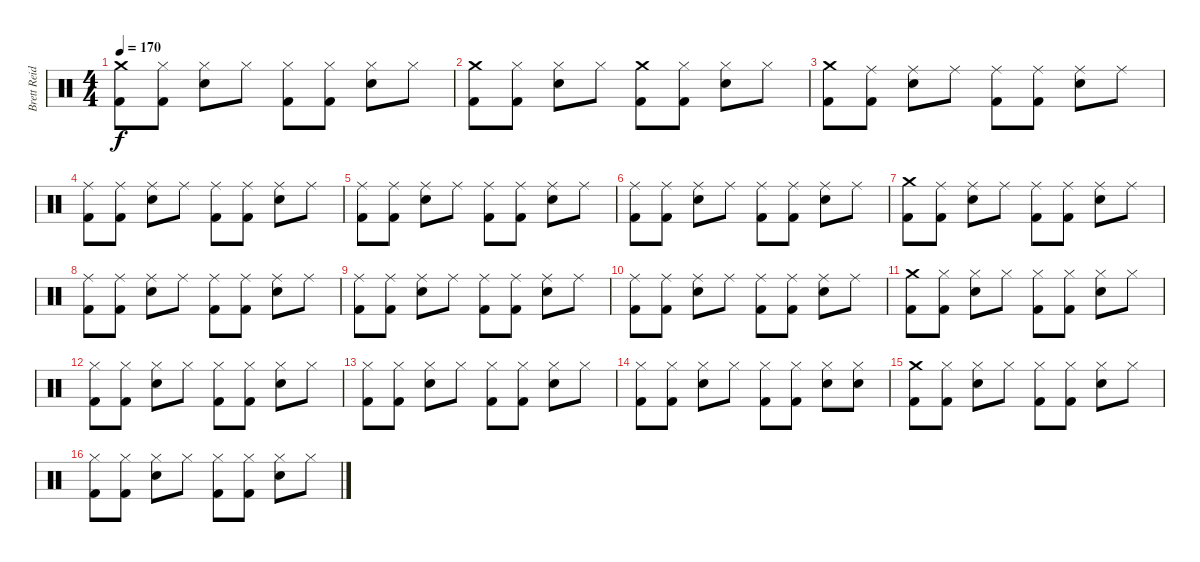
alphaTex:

\track ("Brett Reid" "Brett Reid") {instrument percussion}
\staff {score}
\articulation defaults
\ts (4 4)
\tempo 170
\clef neutral
\ks c
("Crash medium (hit)" "Kick (hit) 2").8{dy f} ("Hi-Hat (closed)" "Kick (hit) 2").8 ("Hi-Hat (closed)" "Snare (hit) 2").8 "Hi-Hat (closed)".8 ("Hi-Hat (closed)" "Kick (hit) 2").8 ("Hi-Hat (closed)" "Kick (hit) 2").8 ("Hi-Hat (closed)" "Snare (hit) 2").8 "Hi-Hat (closed)".8 |
("Crash medium (hit)" "Kick (hit) 2").8 ("Hi-Hat (closed)" "Kick (hit) 2").8 ("Hi-Hat (closed)" "Snare (hit) 2").8 "Hi-Hat (closed)".8 ("Crash medium (hit)" "Kick (hit) 2").8 ("Hi-Hat (closed)" "Kick (hit) 2").8 ("Hi-Hat (closed)" "Snare (hit) 2").8 "Hi-Hat (closed)".8 |
("Crash medium (hit)" "Kick (hit) 2").8 ("Ride (middle)" "Kick (hit) 2").8 ("Ride (middle)" "Snare (hit) 2").8 "Ride (middle)".8 ("Ride (middle)" "Kick (hit) 2").8 ("Ride (middle)" "Kick (hit) 2").8 ("Ride (middle)" "Snare (hit) 2").8 "Ride (middle)".8 |
("Ride (middle)" "Kick (hit) 2").8 ("Ride (middle)" "Kick (hit) 2").8 ("Ride (middle)" "Snare (hit) 2").8 "Ride (middle)".8 ("Ride (middle)" "Kick (hit) 2").8 ("Ride (middle)" "Kick (hit) 2").8 ("Ride (middle)" "Snare (hit) 2").8 "Ride (middle)".8 |
("Ride (middle)" "Kick (hit) 2").8 ("Ride (middle)" "Kick (hit) 2").8 ("Ride (middle)" "Snare (hit) 2").8 "Ride (middle)".8 ("Ride (middle)" "Kick (hit) 2").8 ("Ride (middle)" "Kick (hit) 2").8 ("Ride (middle)" "Snare (hit) 2").8 "Ride (middle)".8 |
("Ride (middle)" "Kick (hit) 2").8 ("Ride (middle)" "Kick (hit) 2").8 ("Ride (middle)" "Snare (hit) 2").8 "Ride (middle)".8 ("Ride (middle)" "Kick (hit) 2").8 ("Ride (middle)" "Kick (hit) 2").8 ("Ride (middle)" "Snare (hit) 2").8 "Ride (middle)".8 |
("Crash medium (hit)" "Kick (hit) 2").8 ("Ride (middle)" "Kick (hit) 2").8 ("Ride (middle)" "Snare (hit) 2").8 "Ride (middle)".8 ("Ride (middle)" "Kick (hit) 2").8 ("Ride (middle)" "Kick (hit) 2").8 ("Ride (middle)" "Snare (hit) 2").8 "Ride (middle)".8 |
("Ride (middle)" "Kick (hit) 2").8 ("Ride (middle)" "Kick (hit) 2").8 ("Ride (middle)" "Snare (hit) 2").8 "Ride (middle)".8 ("Ride (middle)" "Kick (hit) 2").8 ("Ride (middle)" "Kick (hit) 2").8 ("Ride (middle)" "Snare (hit) 2").8 "Ride (middle)".8 |
("Ride (middle)" "Kick (hit) 2").8 ("Ride (middle)" "Kick (hit) 2").8 ("Ride (middle)" "Snare (hit) 2").8 "Ride (middle)".8 ("Ride (middle)" "Kick (hit) 2").8 ("Ride (middle)" "Kick (hit) 2").8 ("Ride (middle)" "Snare (hit) 2").8 "Ride (middle)".8 |
("Ride (middle)" "Kick (hit) 2").8 ("Ride (middle)" "Kick (hit) 2").8 ("Ride (middle)" "Snare (hit) 2").8 "Ride (middle)".8 ("Ride (middle)" "Kick (hit) 2").8 ("Ride (middle)" "Kick (hit) 2").8 ("Ride (middle)" "Snare (hit) 2").8 "Ride (middle)".8 |
("Crash medium (hit)" "Kick (hit) 2").8 ("Hi-Hat (closed)" "Kick (hit) 2").8 ("Hi-Hat (closed)" "Snare (hit) 2").8 "Hi-Hat (closed)".8 ("Hi-Hat (closed)" "Kick (hit) 2").8 ("Hi-Hat (closed)" "Kick (hit) 2").8 ("Hi-Hat (closed)" "Snare (hit) 2").8 "Hi-Hat (closed)".8 |
("Hi-Hat (closed)" "Kick (hit) 2").8 ("Hi-Hat (closed)" "Kick (hit) 2").8 ("Hi-Hat (closed)" "Snare (hit) 2").8 "Hi-Hat (closed)".8 ("Hi-Hat (closed)" "Kick (hit) 2").8 ("Hi-Hat (closed)" "Kick (hit) 2").8 ("Hi-Hat (closed)" "Snare (hit) 2").8 "Hi-Hat (closed)".8 |
("Hi-Hat (closed)" "Kick (hit) 2").8 ("Hi-Hat (closed)" "Kick (hit) 2").8 ("Hi-Hat (closed)" "Snare (hit) 2").8 "Hi-Hat (closed)".8 ("Hi-Hat (closed)" "Kick (hit) 2").8 ("Hi-Hat (closed)" "Kick (hit) 2").8 ("Hi-Hat (closed)" "Snare (hit) 2").8 "Hi-Hat (closed)".8 |
("Hi-Hat (closed)" "Kick (hit) 2").8 ("Hi-Hat (closed)" "Kick (hit) 2").8 ("Hi-Hat (closed)" "Snare (hit) 2").8 "Hi-Hat (closed)".8 ("Hi-Hat (closed)" "Kick (hit) 2").8 ("Hi-Hat (closed)" "Kick (hit) 2").8 ("Hi-Hat (closed)" "Snare (hit) 2").8 ("Hi-Hat (closed)" "Snare (hit) 2").8 |
("Crash medium (hit)" "Kick (hit) 2").8 ("Hi-Hat (closed)" "Kick (hit) 2").8 ("Hi-Hat (closed)" "Snare (hit) 2").8 "Hi-Hat (closed)".8 ("Hi-Hat (closed)" "Kick (hit) 2").8 ("Hi-Hat (closed)" "Kick (hit) 2").8 ("Hi-Hat (closed)" "Snare (hit) 2").8 "Hi-Hat (closed)".8 |
("Hi-Hat (closed)" "Kick (hit) 2").8 ("Hi-Hat (closed)" "Kick (hit) 2").8 ("Hi-Hat (closed)" "Snare (hit) 2").8 "Hi-Hat (closed)".8 ("Hi-Hat (closed)" "Kick (hit) 2").8 ("Hi-Hat (closed)" "Kick (hit) 2").8 ("Hi-Hat (closed)" "Snare (hit) 2").8 "Hi-Hat (closed)".8
